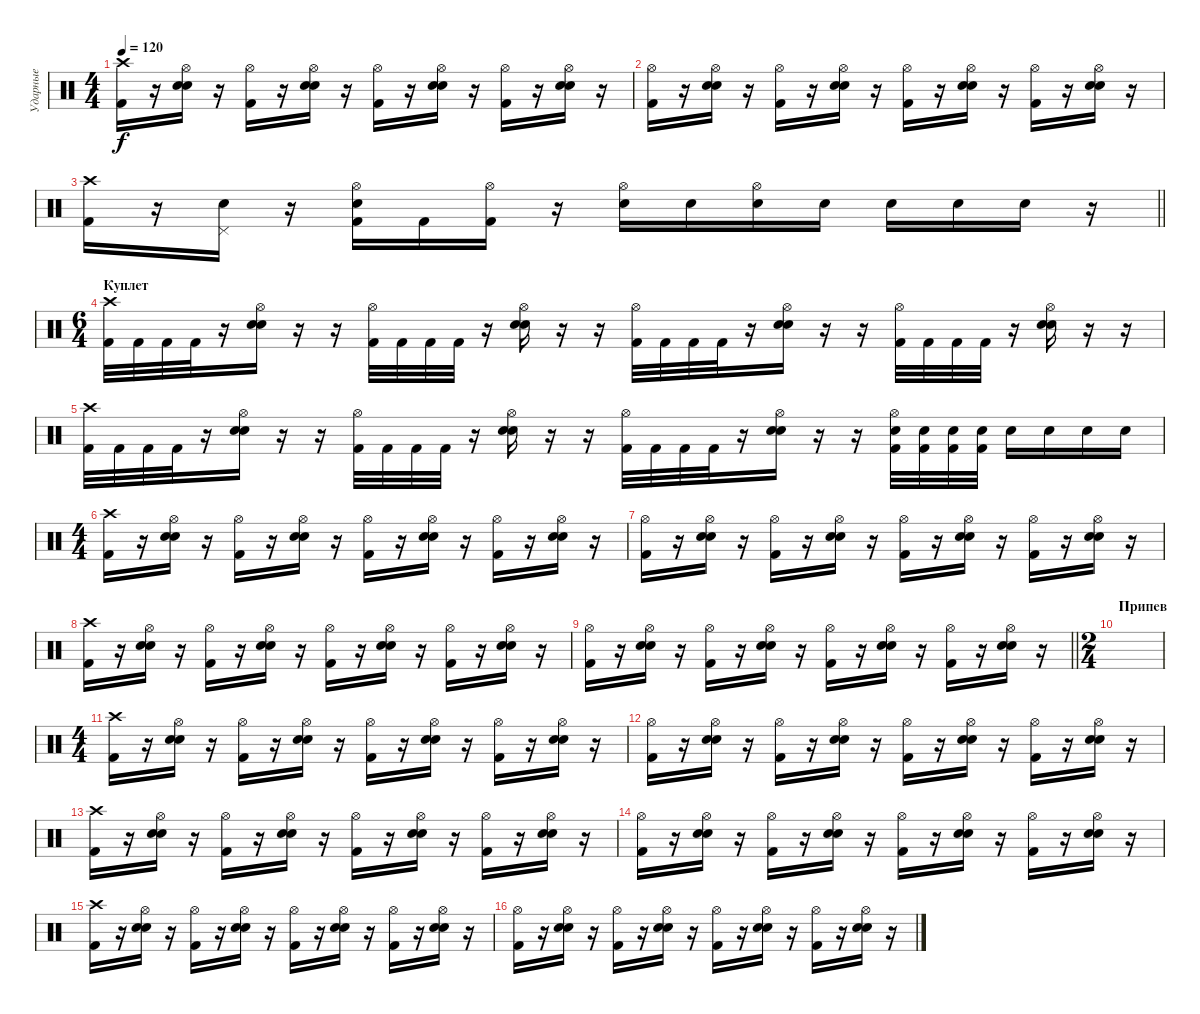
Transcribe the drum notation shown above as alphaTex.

\track ("Ударные" "Ударные") {instrument percussion}
\staff {score}
\articulation defaults
\ts (4 4)
\tempo 120
\clef neutral
\ks c
("Kick (hit) 2" "Crash high (hit)").16{dy f} r.16 ("Snare (hit) 2" "Electric Snare (hit)" "Hi-Hat (open)").16 r.16 ("Kick (hit) 2" "Hi-Hat (open)").16 r.16 ("Snare (hit) 2" "Electric Snare (hit)" "Hi-Hat (open)").16 r.16 ("Kick (hit) 2" "Hi-Hat (open)").16 r.16 ("Snare (hit) 2" "Electric Snare (hit)" "Hi-Hat (open)").16 r.16 ("Kick (hit) 2" "Hi-Hat (open)").16 r.16 ("Snare (hit) 2" "Electric Snare (hit)" "Hi-Hat (open)").16 r.16 |
("Kick (hit) 2" "Hi-Hat (open)").16 r.16 ("Snare (hit) 2" "Electric Snare (hit)" "Hi-Hat (open)").16 r.16 ("Kick (hit) 2" "Hi-Hat (open)").16 r.16 ("Snare (hit) 2" "Electric Snare (hit)" "Hi-Hat (open)").16 r.16 ("Kick (hit) 2" "Hi-Hat (open)").16 r.16 ("Snare (hit) 2" "Electric Snare (hit)" "Hi-Hat (open)").16 r.16 ("Kick (hit) 2" "Hi-Hat (open)").16 r.16 ("Snare (hit) 2" "Electric Snare (hit)" "Hi-Hat (open)").16 r.16 |
\barLineRight lightlight
("Crash high (hit)" "Kick (hit) 2").16 r.16 ("Pedal Hi-Hat (hit)" "Electric Snare (hit)").16 r.16 ("Hi-Hat (open)" "Kick (hit) 2" "Snare (hit) 2").16 "Kick (hit) 2".16 ("Hi-Hat (open)" "Kick (hit) 2").16 r.16 ("Hi-Hat (open)" "Snare (hit) 2").16 "Snare (hit) 2".16 ("Hi-Hat (open)" "Snare (hit) 2").16 "Electric Snare (hit)".16 "Electric Snare (hit)".16 "Electric Snare (hit)".16 "Electric Snare (hit)".16 r.16 |
\ts (6 4)
\section ("" "Куплет")
("Kick (hit) 2" "Crash high (hit)").32 "Kick (hit) 2".32 "Kick (hit) 2".32 "Kick (hit) 2".32 r.16 ("Snare (hit) 2" "Electric Snare (hit)" "Hi-Hat (open)").16 r.16 r.16 ("Kick (hit) 2" "Hi-Hat (open)").32 "Kick (hit) 2".32 "Kick (hit) 2".32 "Kick (hit) 2".32 r.16 ("Electric Snare (hit)" "Snare (hit) 2" "Hi-Hat (open)").16 r.16 r.16 ("Kick (hit) 2" "Hi-Hat (open)").32 "Kick (hit) 2".32 "Kick (hit) 2".32 "Kick (hit) 2".32 r.16 ("Electric Snare (hit)" "Snare (hit) 2" "Hi-Hat (open)").16 r.16 r.16 ("Kick (hit) 2" "Hi-Hat (open)").32 "Kick (hit) 2".32 "Kick (hit) 2".32 "Kick (hit) 2".32 r.16 ("Electric Snare (hit)" "Snare (hit) 2" "Hi-Hat (open)").16 r.16 r.16 |
("Kick (hit) 2" "Crash high (hit)").32 "Kick (hit) 2".32 "Kick (hit) 2".32 "Kick (hit) 2".32 r.16 ("Snare (hit) 2" "Electric Snare (hit)" "Hi-Hat (open)").16 r.16 r.16 ("Kick (hit) 2" "Hi-Hat (open)").32 "Kick (hit) 2".32 "Kick (hit) 2".32 "Kick (hit) 2".32 r.16 ("Electric Snare (hit)" "Snare (hit) 2" "Hi-Hat (open)").16 r.16 r.16 ("Kick (hit) 2" "Hi-Hat (open)").32 "Kick (hit) 2".32 "Kick (hit) 2".32 "Kick (hit) 2".32 r.16 ("Electric Snare (hit)" "Snare (hit) 2" "Hi-Hat (open)").16 r.16 r.16 ("Kick (hit) 2" "Electric Snare (hit)" "Hi-Hat (open)").32 ("Kick (hit) 2" "Electric Snare (hit)").32 ("Kick (hit) 2" "Electric Snare (hit)").32 ("Kick (hit) 2" "Electric Snare (hit)").32 "Electric Snare (hit)".16 "Electric Snare (hit)".16 "Electric Snare (hit)".16 "Electric Snare (hit)".16 |
\ts (4 4)
("Kick (hit) 2" "Crash high (hit)").16 r.16 ("Snare (hit) 2" "Electric Snare (hit)" "Hi-Hat (open)").16 r.16 ("Kick (hit) 2" "Hi-Hat (open)").16 r.16 ("Snare (hit) 2" "Electric Snare (hit)" "Hi-Hat (open)").16 r.16 ("Kick (hit) 2" "Hi-Hat (open)").16 r.16 ("Snare (hit) 2" "Electric Snare (hit)" "Hi-Hat (open)").16 r.16 ("Kick (hit) 2" "Hi-Hat (open)").16 r.16 ("Snare (hit) 2" "Electric Snare (hit)" "Hi-Hat (open)").16 r.16 |
("Kick (hit) 2" "Hi-Hat (open)").16 r.16 ("Snare (hit) 2" "Electric Snare (hit)" "Hi-Hat (open)").16 r.16 ("Kick (hit) 2" "Hi-Hat (open)").16 r.16 ("Snare (hit) 2" "Electric Snare (hit)" "Hi-Hat (open)").16 r.16 ("Kick (hit) 2" "Hi-Hat (open)").16 r.16 ("Snare (hit) 2" "Electric Snare (hit)" "Hi-Hat (open)").16 r.16 ("Kick (hit) 2" "Hi-Hat (open)").16 r.16 ("Snare (hit) 2" "Electric Snare (hit)" "Hi-Hat (open)").16 r.16 |
("Kick (hit) 2" "Crash high (hit)").16 r.16 ("Snare (hit) 2" "Electric Snare (hit)" "Hi-Hat (open)").16 r.16 ("Kick (hit) 2" "Hi-Hat (open)").16 r.16 ("Snare (hit) 2" "Electric Snare (hit)" "Hi-Hat (open)").16 r.16 ("Kick (hit) 2" "Hi-Hat (open)").16 r.16 ("Snare (hit) 2" "Electric Snare (hit)" "Hi-Hat (open)").16 r.16 ("Kick (hit) 2" "Hi-Hat (open)").16 r.16 ("Snare (hit) 2" "Electric Snare (hit)" "Hi-Hat (open)").16 r.16 |
\barLineRight lightlight
("Kick (hit) 2" "Hi-Hat (open)").16 r.16 ("Snare (hit) 2" "Electric Snare (hit)" "Hi-Hat (open)").16 r.16 ("Kick (hit) 2" "Hi-Hat (open)").16 r.16 ("Snare (hit) 2" "Electric Snare (hit)" "Hi-Hat (open)").16 r.16 ("Kick (hit) 2" "Hi-Hat (open)").16 r.16 ("Snare (hit) 2" "Electric Snare (hit)" "Hi-Hat (open)").16 r.16 ("Kick (hit) 2" "Hi-Hat (open)").16 r.16 ("Snare (hit) 2" "Electric Snare (hit)" "Hi-Hat (open)").16 r.16 |
\ts (2 4)
\section ("" "Припев")
|
\ts (4 4)
("Kick (hit) 2" "Crash high (hit)").16 r.16 ("Snare (hit) 2" "Electric Snare (hit)" "Hi-Hat (open)").16 r.16 ("Kick (hit) 2" "Hi-Hat (open)").16 r.16 ("Snare (hit) 2" "Electric Snare (hit)" "Hi-Hat (open)").16 r.16 ("Kick (hit) 2" "Hi-Hat (open)").16 r.16 ("Snare (hit) 2" "Electric Snare (hit)" "Hi-Hat (open)").16 r.16 ("Kick (hit) 2" "Hi-Hat (open)").16 r.16 ("Snare (hit) 2" "Electric Snare (hit)" "Hi-Hat (open)").16 r.16 |
("Kick (hit) 2" "Hi-Hat (open)").16 r.16 ("Snare (hit) 2" "Electric Snare (hit)" "Hi-Hat (open)").16 r.16 ("Kick (hit) 2" "Hi-Hat (open)").16 r.16 ("Snare (hit) 2" "Electric Snare (hit)" "Hi-Hat (open)").16 r.16 ("Kick (hit) 2" "Hi-Hat (open)").16 r.16 ("Snare (hit) 2" "Electric Snare (hit)" "Hi-Hat (open)").16 r.16 ("Kick (hit) 2" "Hi-Hat (open)").16 r.16 ("Snare (hit) 2" "Electric Snare (hit)" "Hi-Hat (open)").16 r.16 |
("Kick (hit) 2" "Crash high (hit)").16 r.16 ("Snare (hit) 2" "Electric Snare (hit)" "Hi-Hat (open)").16 r.16 ("Kick (hit) 2" "Hi-Hat (open)").16 r.16 ("Snare (hit) 2" "Electric Snare (hit)" "Hi-Hat (open)").16 r.16 ("Kick (hit) 2" "Hi-Hat (open)").16 r.16 ("Snare (hit) 2" "Electric Snare (hit)" "Hi-Hat (open)").16 r.16 ("Kick (hit) 2" "Hi-Hat (open)").16 r.16 ("Snare (hit) 2" "Electric Snare (hit)" "Hi-Hat (open)").16 r.16 |
("Kick (hit) 2" "Hi-Hat (open)").16 r.16 ("Snare (hit) 2" "Electric Snare (hit)" "Hi-Hat (open)").16 r.16 ("Kick (hit) 2" "Hi-Hat (open)").16 r.16 ("Snare (hit) 2" "Electric Snare (hit)" "Hi-Hat (open)").16 r.16 ("Kick (hit) 2" "Hi-Hat (open)").16 r.16 ("Snare (hit) 2" "Electric Snare (hit)" "Hi-Hat (open)").16 r.16 ("Kick (hit) 2" "Hi-Hat (open)").16 r.16 ("Snare (hit) 2" "Electric Snare (hit)" "Hi-Hat (open)").16 r.16 |
("Kick (hit) 2" "Crash high (hit)").16 r.16 ("Snare (hit) 2" "Electric Snare (hit)" "Hi-Hat (open)").16 r.16 ("Kick (hit) 2" "Hi-Hat (open)").16 r.16 ("Snare (hit) 2" "Electric Snare (hit)" "Hi-Hat (open)").16 r.16 ("Kick (hit) 2" "Hi-Hat (open)").16 r.16 ("Snare (hit) 2" "Electric Snare (hit)" "Hi-Hat (open)").16 r.16 ("Kick (hit) 2" "Hi-Hat (open)").16 r.16 ("Snare (hit) 2" "Electric Snare (hit)" "Hi-Hat (open)").16 r.16 |
("Kick (hit) 2" "Hi-Hat (open)").16 r.16 ("Snare (hit) 2" "Electric Snare (hit)" "Hi-Hat (open)").16 r.16 ("Kick (hit) 2" "Hi-Hat (open)").16 r.16 ("Snare (hit) 2" "Electric Snare (hit)" "Hi-Hat (open)").16 r.16 ("Kick (hit) 2" "Hi-Hat (open)").16 r.16 ("Snare (hit) 2" "Electric Snare (hit)" "Hi-Hat (open)").16 r.16 ("Kick (hit) 2" "Hi-Hat (open)").16 r.16 ("Snare (hit) 2" "Electric Snare (hit)" "Hi-Hat (open)").16 r.16
